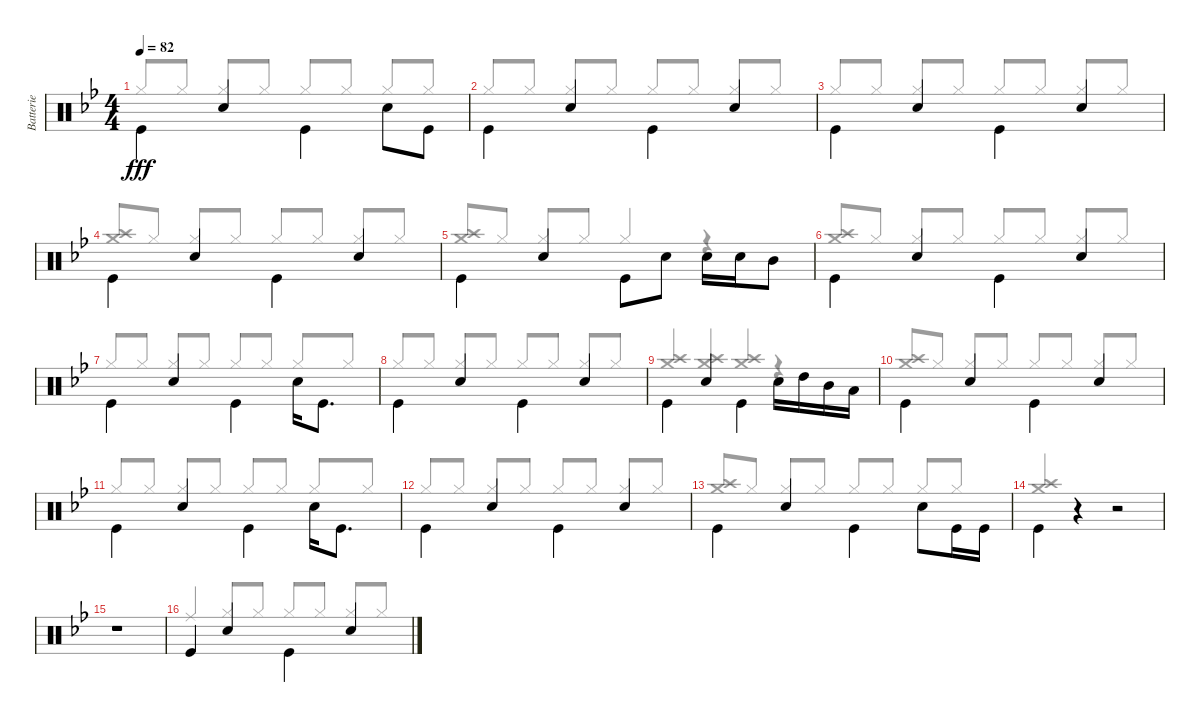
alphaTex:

\track ("Batterie" "Batterie") {instrument percussion}
\staff {score}
\articulation defaults
\voice
\ts (4 4)
\tempo 82
\clef neutral
\ks bb "Kick (hit)".4{dy fff beam Down} "Snare (hit) 2".4 "Kick (hit)".4{beam Down} "Snare (hit) 2".8{beam Down} "Kick (hit)".8{beam Down}
|
"Kick (hit)".4{beam Down} "Snare (hit) 2".4 "Kick (hit)".4{beam Down} "Snare (hit) 2".4 |
"Kick (hit)".4{beam Down} "Snare (hit) 2".4 "Kick (hit)".4{beam Down} "Snare (hit) 2".4 |
"Kick (hit)".4{beam Down} "Snare (hit) 2".4 "Kick (hit)".4{beam Down} "Snare (hit) 2".4 |
"Kick (hit)".4{beam Down} "Snare (hit) 2".4 "Kick (hit)".8{beam Down} "Snare (hit) 2".8{beam Down} "Snare (hit) 2".16{beam Down} "Snare (hit) 2".16{beam Down} "Mid Tom (hit)".8{beam Down} |
"Kick (hit)".4{beam Down} "Snare (hit) 2".4 "Kick (hit)".4{beam Down} "Snare (hit) 2".4 |
"Kick (hit)".4{beam Down} "Snare (hit) 2".4 "Kick (hit)".4{beam Down} "Snare (hit) 2".16{beam Down} "Kick (hit)".8{d beam Down} |
"Kick (hit)".4{beam Down} "Snare (hit) 2".4 "Kick (hit)".4{beam Down} "Snare (hit) 2".4 |
"Kick (hit)".4{beam Down} "Snare (hit) 2".4 "Kick (hit)".4{beam Down} "Snare (hit) 2".16{beam Down} "High Tom (hit)".16{beam Down} "Mid Tom (hit)".16{beam Down} "Low Tom (hit)".16{beam Down} |
"Kick (hit)".4{beam Down} "Snare (hit) 2".4 "Kick (hit)".4{beam Down} "Snare (hit) 2".4 |
"Kick (hit)".4{beam Down} "Snare (hit) 2".4 "Kick (hit)".4{beam Down} "Snare (hit) 2".16{beam Down} "Kick (hit)".8{d beam Down} |
"Kick (hit)".4{beam Down} "Snare (hit) 2".4 "Kick (hit)".4{beam Down} "Snare (hit) 2".4 |
"Kick (hit)".4{beam Down} "Snare (hit) 2".4 "Kick (hit)".4{beam Down} "Snare (hit) 2".8{beam Down} "Kick (hit)".16{beam Down} "Kick (hit)".16{beam Down} |
"Kick (hit)".4{beam Down} r.4 r.2 |
r.1 |
"Kick (hit)".4 "Snare (hit) 2".4 "Kick (hit)".4{beam Down} "Snare (hit) 2".4
\voice
\clef neutral
\ottava regular
\simile none
\ks bb "Hi-Hat (closed)".8{dy fff beam Up} "Hi-Hat (closed)".8{beam Up} "Hi-Hat (closed)".8{beam Up} "Hi-Hat (closed)".8{beam Up} "Hi-Hat (closed)".8{beam Up} "Hi-Hat (closed)".8{beam Up} "Hi-Hat (closed)".8{beam Up} "Hi-Hat (closed)".8{beam Up}
|
"Hi-Hat (closed)".8{beam Up} "Hi-Hat (closed)".8{beam Up} "Hi-Hat (closed)".8{beam Up} "Hi-Hat (closed)".8{beam Up} "Hi-Hat (closed)".8{beam Up} "Hi-Hat (closed)".8{beam Up} "Hi-Hat (closed)".8{beam Up} "Hi-Hat (closed)".8{beam Up} |
"Hi-Hat (closed)".8{beam Up} "Hi-Hat (closed)".8{beam Up} "Hi-Hat (closed)".8{beam Up} "Hi-Hat (closed)".8{beam Up} "Hi-Hat (closed)".8{beam Up} "Hi-Hat (closed)".8{beam Up} "Hi-Hat (closed)".8{beam Up} "Hi-Hat (closed)".8{beam Up} |
("Crash medium (hit)" "Crash high (hit)").8{beam Up} "Hi-Hat (closed)".8{beam Up} "Hi-Hat (closed)".8{beam Up} "Hi-Hat (closed)".8{beam Up} "Hi-Hat (closed)".8{beam Up} "Hi-Hat (closed)".8{beam Up} "Hi-Hat (closed)".8{beam Up} "Hi-Hat (closed)".8{beam Up} |
("Crash medium (hit)" "Crash high (hit)").8{beam Up} "Hi-Hat (closed)".8{beam Up} "Hi-Hat (closed)".8{beam Up} "Hi-Hat (closed)".8{beam Up} "Hi-Hat (closed)".4{beam Up} r.4 |
("Crash medium (hit)" "Crash high (hit)").8{beam Up} "Hi-Hat (closed)".8{beam Up} "Hi-Hat (closed)".8{beam Up} "Hi-Hat (closed)".8{beam Up} "Hi-Hat (closed)".8{beam Up} "Hi-Hat (closed)".8{beam Up} "Hi-Hat (closed)".8{beam Up} "Hi-Hat (closed)".8{beam Up} |
"Hi-Hat (closed)".8{beam Up} "Hi-Hat (closed)".8{beam Up} "Hi-Hat (closed)".8{beam Up} "Hi-Hat (closed)".8{beam Up} "Hi-Hat (closed)".8{beam Up} "Hi-Hat (closed)".8{beam Up} "Hi-Hat (closed)".8{beam Up} "Hi-Hat (closed)".8{beam Up} |
"Hi-Hat (closed)".8{beam Up} "Hi-Hat (closed)".8{beam Up} "Hi-Hat (closed)".8{beam Up} "Hi-Hat (closed)".8{beam Up} "Hi-Hat (closed)".8{beam Up} "Hi-Hat (closed)".8{beam Up} "Hi-Hat (closed)".8{beam Up} "Hi-Hat (closed)".8{beam Up} |
("Crash medium (hit)" "Crash high (hit)").4{beam Up} ("Crash medium (hit)" "Crash high (hit)").4{beam Up} ("Crash medium (hit)" "Crash high (hit)").4{beam Up} r.4 |
("Crash medium (hit)" "Crash high (hit)").8{beam Up} "Hi-Hat (closed)".8{beam Up} "Hi-Hat (closed)".8{beam Up} "Hi-Hat (closed)".8{beam Up} "Hi-Hat (closed)".8{beam Up} "Hi-Hat (closed)".8{beam Up} "Hi-Hat (closed)".8{beam Up} "Hi-Hat (closed)".8{beam Up} |
"Hi-Hat (closed)".8{beam Up} "Hi-Hat (closed)".8{beam Up} "Hi-Hat (closed)".8{beam Up} "Hi-Hat (closed)".8{beam Up} "Hi-Hat (closed)".8{beam Up} "Hi-Hat (closed)".8{beam Up} "Hi-Hat (closed)".8{beam Up} "Hi-Hat (closed)".8{beam Up} |
"Hi-Hat (closed)".8{beam Up} "Hi-Hat (closed)".8{beam Up} "Hi-Hat (closed)".8{beam Up} "Hi-Hat (closed)".8{beam Up} "Hi-Hat (closed)".8{beam Up} "Hi-Hat (closed)".8{beam Up} "Hi-Hat (closed)".8{beam Up} "Hi-Hat (closed)".8{beam Up} |
("Crash medium (hit)" "Crash high (hit)").8{beam Up} "Hi-Hat (closed)".8{beam Up} "Hi-Hat (closed)".8{beam Up} "Hi-Hat (closed)".8{beam Up} "Hi-Hat (closed)".8{beam Up} "Hi-Hat (closed)".8{beam Up} "Hi-Hat (closed)".8{beam Up} "Hi-Hat (closed)".8{beam Up} |
("Crash medium (hit)" "Crash high (hit)").4{beam Up} r.4 r.2 |
|
"Ride (middle)".4{beam Up} "Hi-Hat (closed)".8{beam Up} "Hi-Hat (closed)".8{beam Up} "Hi-Hat (closed)".8{beam Up} "Hi-Hat (closed)".8{beam Up} "Hi-Hat (closed)".8{beam Up} "Hi-Hat (closed)".8{beam Up}
